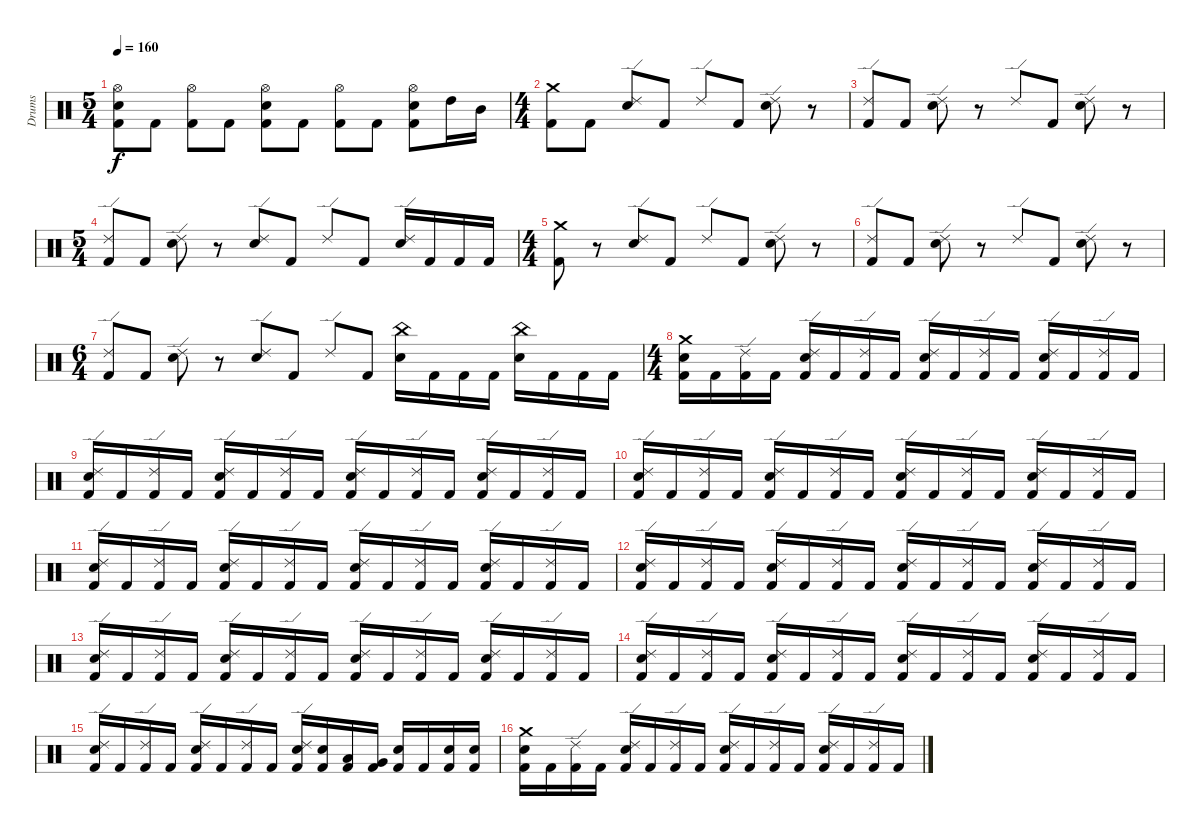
\track ("Drums" "Drums") {instrument percussion}
\staff {score}
\articulation defaults
\ts (5 4)
\tempo 160
\clef neutral
\ks c
("Hi-Hat (open)" "Electric Snare (hit)" "Kick (hit) 2").8{dy f} "Kick (hit) 2".8 ("Hi-Hat (open)" "Kick (hit) 2").8 "Kick (hit) 2".8 ("Hi-Hat (open)" "Electric Snare (hit)" "Kick (hit) 2").8 "Kick (hit) 2".8 ("Hi-Hat (open)" "Kick (hit) 2").8 "Kick (hit) 2".8 ("Hi-Hat (open)" "Electric Snare (hit)" "Kick (hit) 2").8 "High Tom (hit)".16 "Mid Tom (hit)".16 |
\ts (4 4)
("Crash medium (hit)" "Kick (hit) 2").8 "Kick (hit) 2".8 ("Ride (edge) 2" "Electric Snare (hit)").8 "Kick (hit) 2".8 "Ride (edge) 2".8 "Kick (hit) 2".8 ("Ride (edge) 2" "Electric Snare (hit)").8 r.8 |
("Ride (edge) 2" "Kick (hit) 2").8 "Kick (hit) 2".8 ("Ride (edge) 2" "Electric Snare (hit)").8 r.8 "Ride (edge) 2".8 "Kick (hit) 2".8 ("Ride (edge) 2" "Electric Snare (hit)").8 r.8 |
\ts (5 4)
("Ride (edge) 2" "Kick (hit) 2").8 "Kick (hit) 2".8 ("Ride (edge) 2" "Electric Snare (hit)").8 r.8 ("Ride (edge) 2" "Electric Snare (hit)").8 "Kick (hit) 2".8 "Ride (edge) 2".8 "Kick (hit) 2".8 ("Ride (edge) 2" "Electric Snare (hit)").16 "Kick (hit) 2".16 "Kick (hit) 2".16 "Kick (hit) 2".16 |
\ts (4 4)
("Crash medium (hit)" "Kick (hit) 2").8 r.8 ("Ride (edge) 2" "Electric Snare (hit)").8 "Kick (hit) 2".8 "Ride (edge) 2".8 "Kick (hit) 2".8 ("Ride (edge) 2" "Electric Snare (hit)").8 r.8 |
("Ride (edge) 2" "Kick (hit) 2").8 "Kick (hit) 2".8 ("Ride (edge) 2" "Electric Snare (hit)").8 r.8 "Ride (edge) 2".8 "Kick (hit) 2".8 ("Ride (edge) 2" "Electric Snare (hit)").8 r.8 |
\ts (6 4)
("Ride (edge) 2" "Kick (hit) 2").8 "Kick (hit) 2".8 ("Ride (edge) 2" "Electric Snare (hit)").8 r.8 ("Ride (edge) 2" "Electric Snare (hit)").8 "Kick (hit) 2".8 "Ride (edge) 2".8 "Kick (hit) 2".8 ("China (hit)" "Electric Snare (hit)").16 "Kick (hit) 2".16 "Kick (hit) 2".16 "Kick (hit) 2".16 ("China (hit)" "Electric Snare (hit)").16 "Kick (hit) 2".16 "Kick (hit) 2".16 "Kick (hit) 2".16 |
\ts (4 4)
("Crash medium (hit)" "Kick (hit) 2" "Electric Snare (hit)").16 "Kick (hit) 2".16 ("Ride (edge) 2" "Kick (hit) 2").16 "Kick (hit) 2".16 ("Ride (edge) 2" "Kick (hit) 2" "Electric Snare (hit)").16 "Kick (hit) 2".16 ("Ride (edge) 2" "Kick (hit) 2").16 "Kick (hit) 2".16 ("Ride (edge) 2" "Kick (hit) 2" "Electric Snare (hit)").16 "Kick (hit) 2".16 ("Ride (edge) 2" "Kick (hit) 2").16 "Kick (hit) 2".16 ("Ride (edge) 2" "Kick (hit) 2" "Electric Snare (hit)").16 "Kick (hit) 2".16 ("Ride (edge) 2" "Kick (hit) 2").16 "Kick (hit) 2".16 |
("Ride (edge) 2" "Kick (hit) 2" "Electric Snare (hit)").16 "Kick (hit) 2".16 ("Ride (edge) 2" "Kick (hit) 2").16 "Kick (hit) 2".16 ("Ride (edge) 2" "Kick (hit) 2" "Electric Snare (hit)").16 "Kick (hit) 2".16 ("Ride (edge) 2" "Kick (hit) 2").16 "Kick (hit) 2".16 ("Ride (edge) 2" "Kick (hit) 2" "Electric Snare (hit)").16 "Kick (hit) 2".16 ("Ride (edge) 2" "Kick (hit) 2").16 "Kick (hit) 2".16 ("Ride (edge) 2" "Kick (hit) 2" "Electric Snare (hit)").16 "Kick (hit) 2".16 ("Ride (edge) 2" "Kick (hit) 2").16 "Kick (hit) 2".16 |
("Ride (edge) 2" "Kick (hit) 2" "Electric Snare (hit)").16 "Kick (hit) 2".16 ("Ride (edge) 2" "Kick (hit) 2").16 "Kick (hit) 2".16 ("Ride (edge) 2" "Kick (hit) 2" "Electric Snare (hit)").16 "Kick (hit) 2".16 ("Ride (edge) 2" "Kick (hit) 2").16 "Kick (hit) 2".16 ("Ride (edge) 2" "Kick (hit) 2" "Electric Snare (hit)").16 "Kick (hit) 2".16 ("Ride (edge) 2" "Kick (hit) 2").16 "Kick (hit) 2".16 ("Ride (edge) 2" "Kick (hit) 2" "Electric Snare (hit)").16 "Kick (hit) 2".16 ("Ride (edge) 2" "Kick (hit) 2").16 "Kick (hit) 2".16 |
("Ride (edge) 2" "Kick (hit) 2" "Electric Snare (hit)").16 "Kick (hit) 2".16 ("Ride (edge) 2" "Kick (hit) 2").16 "Kick (hit) 2".16 ("Ride (edge) 2" "Kick (hit) 2" "Electric Snare (hit)").16 "Kick (hit) 2".16 ("Ride (edge) 2" "Kick (hit) 2").16 "Kick (hit) 2".16 ("Ride (edge) 2" "Kick (hit) 2" "Electric Snare (hit)").16 "Kick (hit) 2".16 ("Ride (edge) 2" "Kick (hit) 2").16 "Kick (hit) 2".16 ("Ride (edge) 2" "Kick (hit) 2" "Electric Snare (hit)").16 "Kick (hit) 2".16 ("Ride (edge) 2" "Kick (hit) 2").16 "Kick (hit) 2".16 |
("Ride (edge) 2" "Kick (hit) 2" "Electric Snare (hit)").16 "Kick (hit) 2".16 ("Ride (edge) 2" "Kick (hit) 2").16 "Kick (hit) 2".16 ("Ride (edge) 2" "Kick (hit) 2" "Electric Snare (hit)").16 "Kick (hit) 2".16 ("Ride (edge) 2" "Kick (hit) 2").16 "Kick (hit) 2".16 ("Ride (edge) 2" "Kick (hit) 2" "Electric Snare (hit)").16 "Kick (hit) 2".16 ("Ride (edge) 2" "Kick (hit) 2").16 "Kick (hit) 2".16 ("Ride (edge) 2" "Kick (hit) 2" "Electric Snare (hit)").16 "Kick (hit) 2".16 ("Ride (edge) 2" "Kick (hit) 2").16 "Kick (hit) 2".16 |
("Ride (edge) 2" "Kick (hit) 2" "Electric Snare (hit)").16 "Kick (hit) 2".16 ("Ride (edge) 2" "Kick (hit) 2").16 "Kick (hit) 2".16 ("Ride (edge) 2" "Kick (hit) 2" "Electric Snare (hit)").16 "Kick (hit) 2".16 ("Ride (edge) 2" "Kick (hit) 2").16 "Kick (hit) 2".16 ("Ride (edge) 2" "Kick (hit) 2" "Electric Snare (hit)").16 "Kick (hit) 2".16 ("Ride (edge) 2" "Kick (hit) 2").16 "Kick (hit) 2".16 ("Ride (edge) 2" "Kick (hit) 2" "Electric Snare (hit)").16 "Kick (hit) 2".16 ("Ride (edge) 2" "Kick (hit) 2").16 "Kick (hit) 2".16 |
("Ride (edge) 2" "Kick (hit) 2" "Electric Snare (hit)").16 "Kick (hit) 2".16 ("Ride (edge) 2" "Kick (hit) 2").16 "Kick (hit) 2".16 ("Ride (edge) 2" "Kick (hit) 2" "Electric Snare (hit)").16 "Kick (hit) 2".16 ("Ride (edge) 2" "Kick (hit) 2").16 "Kick (hit) 2".16 ("Ride (edge) 2" "Kick (hit) 2" "Electric Snare (hit)").16 "Kick (hit) 2".16 ("Ride (edge) 2" "Kick (hit) 2").16 "Kick (hit) 2".16 ("Ride (edge) 2" "Kick (hit) 2" "Electric Snare (hit)").16 "Kick (hit) 2".16 ("Ride (edge) 2" "Kick (hit) 2").16 "Kick (hit) 2".16 |
("Ride (edge) 2" "Kick (hit) 2" "Electric Snare (hit)").16 "Kick (hit) 2".16 ("Ride (edge) 2" "Kick (hit) 2").16 "Kick (hit) 2".16 ("Ride (edge) 2" "Kick (hit) 2" "Electric Snare (hit)").16 "Kick (hit) 2".16 ("Ride (edge) 2" "Kick (hit) 2").16 "Kick (hit) 2".16 ("Ride (edge) 2" "Kick (hit) 2" "Electric Snare (hit)").16 ("Electric Snare (hit)" "Kick (hit) 2").16 ("Low Tom (hit)" "Kick (hit) 2").16 ("Very Low Tom (hit)" "Kick (hit) 2").16 ("Kick (hit) 2" "Electric Snare (hit)").16 "Kick (hit) 2".16 ("Electric Snare (hit)" "Kick (hit) 2").16 ("Electric Snare (hit)" "Kick (hit) 2").16 |
("Crash medium (hit)" "Kick (hit) 2" "Electric Snare (hit)").16 "Kick (hit) 2".16 ("Ride (edge) 2" "Kick (hit) 2").16 "Kick (hit) 2".16 ("Ride (edge) 2" "Kick (hit) 2" "Electric Snare (hit)").16 "Kick (hit) 2".16 ("Ride (edge) 2" "Kick (hit) 2").16 "Kick (hit) 2".16 ("Ride (edge) 2" "Kick (hit) 2" "Electric Snare (hit)").16 "Kick (hit) 2".16 ("Ride (edge) 2" "Kick (hit) 2").16 "Kick (hit) 2".16 ("Ride (edge) 2" "Kick (hit) 2" "Electric Snare (hit)").16 "Kick (hit) 2".16 ("Ride (edge) 2" "Kick (hit) 2").16 "Kick (hit) 2".16
